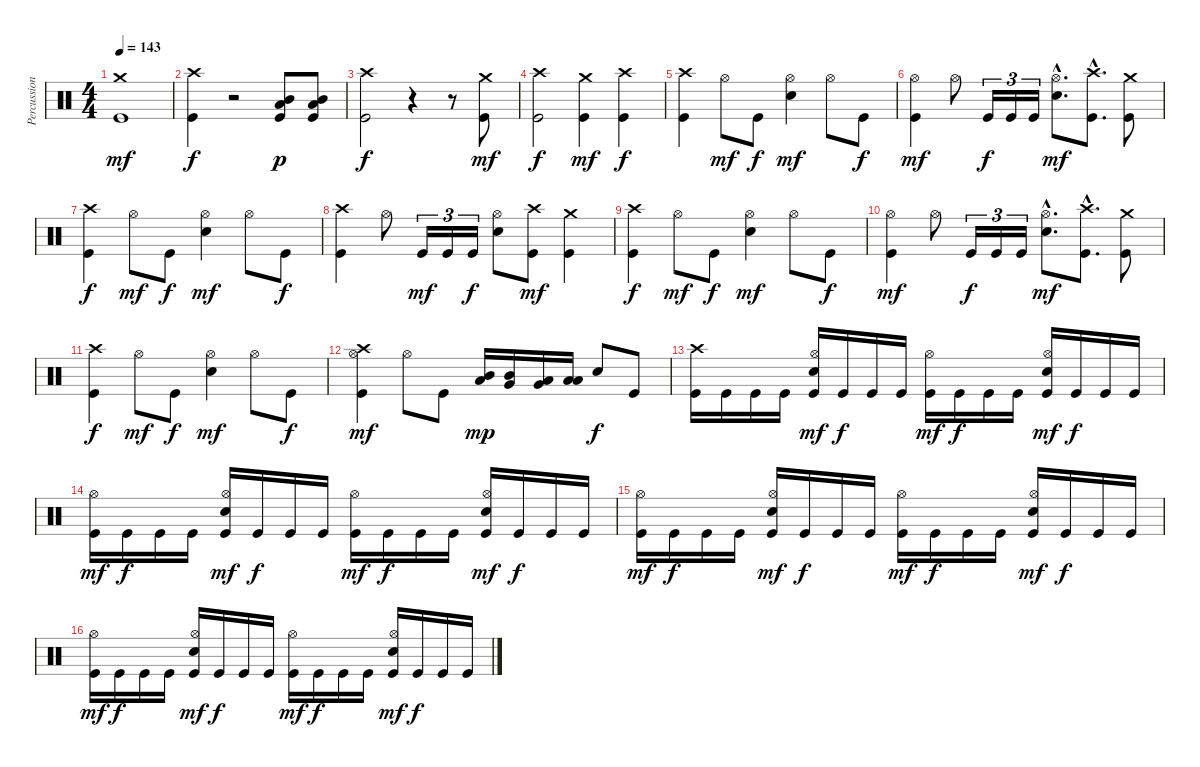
\track ("Percussions" "Percussion") {instrument percussion}
\staff {score}
\articulation defaults
\ts (4 4)
\tempo 143
\clef neutral
\ks c
("Kick (hit)" "Crash medium (hit)").1{dy mf} |
("Kick (hit)" "Crash high (hit)").4{dy f} r.2 ("Kick (hit)" "Low Floor Tom (hit)" "Mid Tom (hit)").8{dy p} ("Kick (hit)" "Low Floor Tom (hit)" "Mid Tom (hit)").8 |
("Kick (hit)" "Crash high (hit)").2{dy f} r.4 r.8 ("Kick (hit)" "Crash medium (hit)").8{dy mf} |
("Kick (hit)" "Crash high (hit)").2{dy f} ("Kick (hit)" "Crash medium (hit)").4{dy mf} ("Kick (hit)" "Crash high (hit)").4{dy f} |
("Kick (hit)" "Crash high (hit)").4 "Hi-Hat (open)".8{dy mf} "Kick (hit)".8{dy f} ("Electric Snare (hit)" "Hi-Hat (open)").4{dy mf} "Hi-Hat (open)".8 "Kick (hit)".8{dy f} |
("Kick (hit)" "Hi-Hat (open)").4{dy mf} "Hi-Hat (open)".8 "Kick (hit)".16{tu (3 2) dy f} "Kick (hit)".16{tu (3 2)} "Kick (hit)".16{tu (3 2)} ("Electric Snare (hit)"{hac} "Hi-Hat (open)"{hac}).8{d dy mf} ("Kick (hit)"{hac} "Crash high (hit)"{hac}).8{d} ("Kick (hit)" "Crash medium (hit)").8 |
("Kick (hit)" "Crash high (hit)").4{dy f} "Hi-Hat (open)".8{dy mf} "Kick (hit)".8{dy f} ("Electric Snare (hit)" "Hi-Hat (open)").4{dy mf} "Hi-Hat (open)".8 "Kick (hit)".8{dy f} |
("Kick (hit)" "Crash high (hit)").4 "Hi-Hat (open)".8 "Kick (hit)".16{tu (3 2) dy mf} "Kick (hit)".16{tu (3 2)} "Kick (hit)".16{tu (3 2) dy f} ("Electric Snare (hit)" "Hi-Hat (open)").8 ("Kick (hit)" "Crash high (hit)").8{dy mf} ("Kick (hit)" "Crash medium (hit)").4 |
("Kick (hit)" "Crash high (hit)").4{dy f} "Hi-Hat (open)".8{dy mf} "Kick (hit)".8{dy f} ("Electric Snare (hit)" "Hi-Hat (open)").4{dy mf} "Hi-Hat (open)".8 "Kick (hit)".8{dy f} |
("Kick (hit)" "Hi-Hat (open)").4{dy mf} "Hi-Hat (open)".8 "Kick (hit)".16{tu (3 2) dy f} "Kick (hit)".16{tu (3 2)} "Kick (hit)".16{tu (3 2)} ("Electric Snare (hit)"{hac} "Hi-Hat (open)"{hac}).8{d dy mf} ("Kick (hit)"{hac} "Crash high (hit)"{hac}).8{d} ("Kick (hit)" "Crash medium (hit)").8 |
("Kick (hit)" "Crash high (hit)").4{dy f} "Hi-Hat (open)".8{dy mf} "Kick (hit)".8{dy f} ("Electric Snare (hit)" "Hi-Hat (open)").4{dy mf} "Hi-Hat (open)".8 "Kick (hit)".8{dy f} |
("Kick (hit)" "Hi-Hat (open)" "Crash high (hit)").4{dy mf} "Hi-Hat (open)".8 "Kick (hit)".8 ("Low Tom (hit)" "Mid Tom (hit)").16{dy mp} ("Very Low Tom (hit)" "Mid Tom (hit)").16 ("Very Low Tom (hit)" "Low Tom (hit)").16 ("Low Floor Tom (hit)" "Low Tom (hit)").16 "Electric Snare (hit)".8{dy f} "Kick (hit)".8 |
("Kick (hit)" "Crash high (hit)").16 "Kick (hit)".16 "Kick (hit)".16 "Kick (hit)".16 ("Kick (hit)" "Electric Snare (hit)" "Hi-Hat (open)").16{dy mf} "Kick (hit)".16{dy f} "Kick (hit)".16 "Kick (hit)".16 ("Kick (hit)" "Hi-Hat (open)").16{dy mf} "Kick (hit)".16{dy f} "Kick (hit)".16 "Kick (hit)".16 ("Kick (hit)" "Electric Snare (hit)" "Hi-Hat (open)").16{dy mf} "Kick (hit)".16{dy f} "Kick (hit)".16 "Kick (hit)".16 |
("Kick (hit)" "Hi-Hat (open)").16{dy mf} "Kick (hit)".16{dy f} "Kick (hit)".16 "Kick (hit)".16 ("Kick (hit)" "Electric Snare (hit)" "Hi-Hat (open)").16{dy mf} "Kick (hit)".16{dy f} "Kick (hit)".16 "Kick (hit)".16 ("Kick (hit)" "Hi-Hat (open)").16{dy mf} "Kick (hit)".16{dy f} "Kick (hit)".16 "Kick (hit)".16 ("Kick (hit)" "Electric Snare (hit)" "Hi-Hat (open)").16{dy mf} "Kick (hit)".16{dy f} "Kick (hit)".16 "Kick (hit)".16 |
("Kick (hit)" "Hi-Hat (open)").16{dy mf} "Kick (hit)".16{dy f} "Kick (hit)".16 "Kick (hit)".16 ("Kick (hit)" "Electric Snare (hit)" "Hi-Hat (open)").16{dy mf} "Kick (hit)".16{dy f} "Kick (hit)".16 "Kick (hit)".16 ("Kick (hit)" "Hi-Hat (open)").16{dy mf} "Kick (hit)".16{dy f} "Kick (hit)".16 "Kick (hit)".16 ("Kick (hit)" "Electric Snare (hit)" "Hi-Hat (open)").16{dy mf} "Kick (hit)".16{dy f} "Kick (hit)".16 "Kick (hit)".16 |
("Kick (hit)" "Hi-Hat (open)").16{dy mf} "Kick (hit)".16{dy f} "Kick (hit)".16 "Kick (hit)".16 ("Kick (hit)" "Electric Snare (hit)" "Hi-Hat (open)").16{dy mf} "Kick (hit)".16{dy f} "Kick (hit)".16 "Kick (hit)".16 ("Kick (hit)" "Hi-Hat (open)").16{dy mf} "Kick (hit)".16{dy f} "Kick (hit)".16 "Kick (hit)".16 ("Kick (hit)" "Electric Snare (hit)" "Hi-Hat (open)").16{dy mf} "Kick (hit)".16{dy f} "Kick (hit)".16 "Kick (hit)".16
